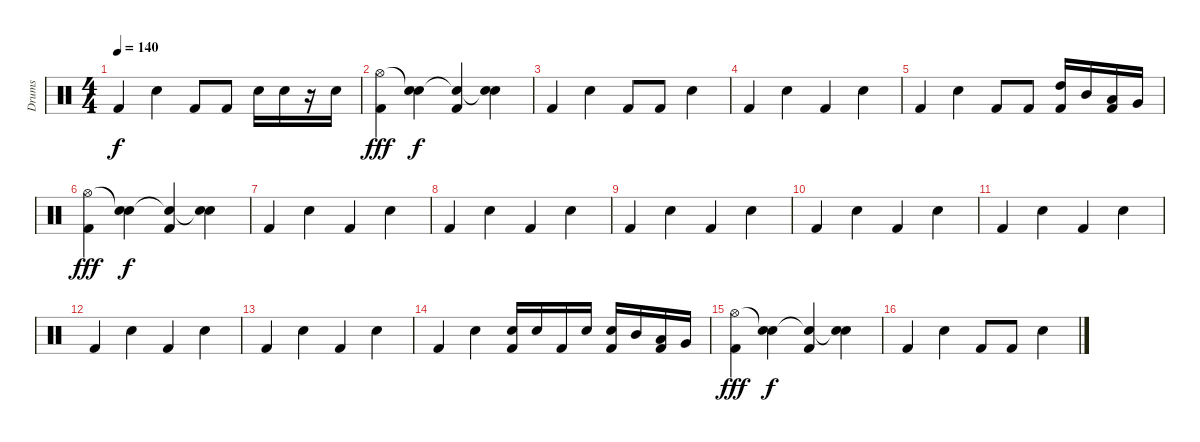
\track ("Drums" "Drums") {instrument percussion}
\staff {score}
\articulation defaults
\ts (4 4)
\tempo 140
\clef neutral
\ks c "Kick (hit) 2".4{dy f} "Snare (hit) 2".4 "Kick (hit) 2".8 "Kick (hit) 2".8 "Snare (hit) 2".16 "Snare (hit) 2".16
r.16 "Snare (hit) 2".16 |
("Hi-Hat (open)" "Kick (hit) 2").4{dy fff} ("Snare (hit)"{t} "Snare (hit) 2").4{dy f} ("Snare (hit)"{t} "Kick (hit) 2").4 ("Snare (hit)"{t} "Snare (hit) 2").4 |
"Kick (hit) 2".4 "Snare (hit) 2".4 "Kick (hit) 2".8 "Kick (hit) 2".8 "Snare (hit) 2".4 |
"Kick (hit) 2".4 "Snare (hit) 2".4 "Kick (hit) 2".4 "Snare (hit) 2".4 |
"Kick (hit) 2".4 "Snare (hit) 2".4 "Kick (hit) 2".8 "Kick (hit) 2".8 ("High Tom (hit)" "Kick (hit) 2").16 "Mid Tom (hit)".16 ("Low Tom (hit)" "Kick (hit) 2").16 "Very Low Tom (hit)".16 |
("Hi-Hat (open)" "Kick (hit) 2").4{dy fff} ("Snare (hit)"{t} "Snare (hit) 2").4{dy f} ("Snare (hit)"{t} "Kick (hit) 2").4 ("Snare (hit)"{t} "Snare (hit) 2").4 |
"Kick (hit) 2".4 "Snare (hit) 2".4 "Kick (hit) 2".4 "Snare (hit) 2".4 |
"Kick (hit) 2".4 "Snare (hit) 2".4 "Kick (hit) 2".4 "Snare (hit) 2".4 |
"Kick (hit) 2".4 "Snare (hit) 2".4 "Kick (hit) 2".4 "Snare (hit) 2".4 |
"Kick (hit) 2".4 "Snare (hit) 2".4 "Kick (hit) 2".4 "Snare (hit) 2".4 |
"Kick (hit) 2".4 "Snare (hit) 2".4 "Kick (hit) 2".4 "Snare (hit) 2".4 |
"Kick (hit) 2".4 "Snare (hit) 2".4 "Kick (hit) 2".4 "Snare (hit) 2".4 |
"Kick (hit) 2".4 "Snare (hit) 2".4 "Kick (hit) 2".4 "Snare (hit) 2".4 |
"Kick (hit) 2".4 "Snare (hit) 2".4 ("Snare (hit) 2" "Kick (hit) 2").16 "Snare (hit) 2".16 "Kick (hit) 2".16 "Snare (hit) 2".16 ("Snare (hit) 2" "Kick (hit) 2").16 "Mid Tom (hit)".16 ("Low Tom (hit)" "Kick (hit) 2").16 "Very Low Tom (hit)".16 |
("Hi-Hat (open)" "Kick (hit) 2").4{dy fff} ("Snare (hit)"{t} "Snare (hit) 2").4{dy f} ("Snare (hit)"{t} "Kick (hit) 2").4 ("Snare (hit)"{t} "Snare (hit) 2").4 |
"Kick (hit) 2".4 "Snare (hit) 2".4 "Kick (hit) 2".8 "Kick (hit) 2".8 "Snare (hit) 2".4
